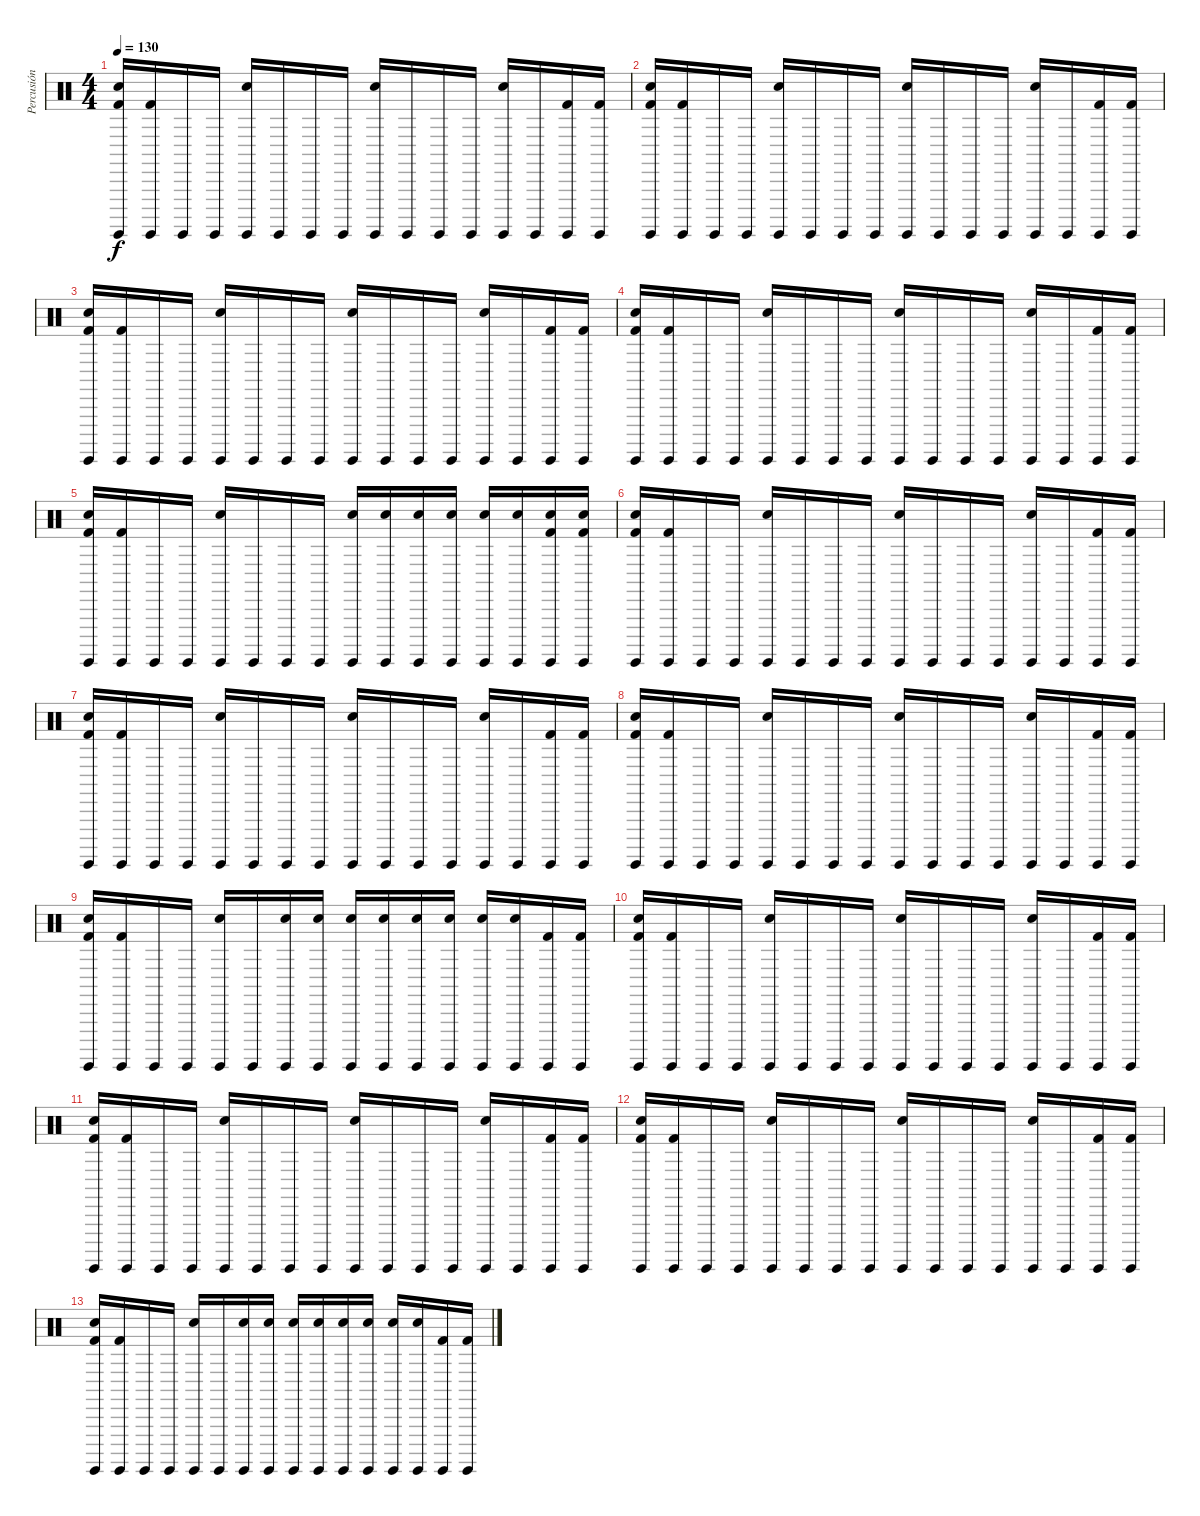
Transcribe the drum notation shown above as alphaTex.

\track ("Percusión" "Percusión") {instrument percussion}
\staff {score}
\articulation defaults
\ts (4 4)
\tempo 130
\clef neutral
\ks c
("Kick (hit) 2" "Electric Snare (hit)" "Surdo (hit)").16{dy f} ("Kick (hit) 2" "Surdo (hit)").16 "Surdo (hit)".16 "Surdo (hit)".16 ("Electric Snare (hit)" "Surdo (hit)").16 "Surdo (hit)".16 "Surdo (hit)".16 "Surdo (hit)".16 ("Electric Snare (hit)" "Surdo (hit)").16 "Surdo (hit)".16 "Surdo (hit)".16 "Surdo (hit)".16 ("Electric Snare (hit)" "Surdo (hit)").16 "Surdo (hit)".16 ("Kick (hit) 2" "Surdo (hit)").16 ("Kick (hit) 2" "Surdo (hit)").16 |
("Kick (hit) 2" "Electric Snare (hit)" "Surdo (hit)").16 ("Kick (hit) 2" "Surdo (hit)").16 "Surdo (hit)".16 "Surdo (hit)".16 ("Electric Snare (hit)" "Surdo (hit)").16 "Surdo (hit)".16 "Surdo (hit)".16 "Surdo (hit)".16 ("Electric Snare (hit)" "Surdo (hit)").16 "Surdo (hit)".16 "Surdo (hit)".16 "Surdo (hit)".16 ("Electric Snare (hit)" "Surdo (hit)").16 "Surdo (hit)".16 ("Kick (hit) 2" "Surdo (hit)").16 ("Kick (hit) 2" "Surdo (hit)").16 |
("Kick (hit) 2" "Electric Snare (hit)" "Surdo (hit)").16 ("Kick (hit) 2" "Surdo (hit)").16 "Surdo (hit)".16 "Surdo (hit)".16 ("Electric Snare (hit)" "Surdo (hit)").16 "Surdo (hit)".16 "Surdo (hit)".16 "Surdo (hit)".16 ("Electric Snare (hit)" "Surdo (hit)").16 "Surdo (hit)".16 "Surdo (hit)".16 "Surdo (hit)".16 ("Electric Snare (hit)" "Surdo (hit)").16 "Surdo (hit)".16 ("Kick (hit) 2" "Surdo (hit)").16 ("Kick (hit) 2" "Surdo (hit)").16 |
("Kick (hit) 2" "Electric Snare (hit)" "Surdo (hit)").16 ("Kick (hit) 2" "Surdo (hit)").16 "Surdo (hit)".16 "Surdo (hit)".16 ("Electric Snare (hit)" "Surdo (hit)").16 "Surdo (hit)".16 "Surdo (hit)".16 "Surdo (hit)".16 ("Electric Snare (hit)" "Surdo (hit)").16 "Surdo (hit)".16 "Surdo (hit)".16 "Surdo (hit)".16 ("Electric Snare (hit)" "Surdo (hit)").16 "Surdo (hit)".16 ("Kick (hit) 2" "Surdo (hit)").16 ("Kick (hit) 2" "Surdo (hit)").16 |
("Kick (hit) 2" "Electric Snare (hit)" "Surdo (hit)").16 ("Kick (hit) 2" "Surdo (hit)").16 "Surdo (hit)".16 "Surdo (hit)".16 ("Electric Snare (hit)" "Surdo (hit)").16 "Surdo (hit)".16 "Surdo (hit)".16 "Surdo (hit)".16 ("Electric Snare (hit)" "Surdo (hit)").16 ("Electric Snare (hit)" "Surdo (hit)").16 ("Electric Snare (hit)" "Surdo (hit)").16 ("Electric Snare (hit)" "Surdo (hit)").16 ("Electric Snare (hit)" "Surdo (hit)").16 ("Electric Snare (hit)" "Surdo (hit)").16 ("Kick (hit) 2" "Electric Snare (hit)" "Surdo (hit)").16 ("Kick (hit) 2" "Electric Snare (hit)" "Surdo (hit)").16 |
("Kick (hit) 2" "Electric Snare (hit)" "Surdo (hit)").16 ("Kick (hit) 2" "Surdo (hit)").16 "Surdo (hit)".16 "Surdo (hit)".16 ("Electric Snare (hit)" "Surdo (hit)").16 "Surdo (hit)".16 "Surdo (hit)".16 "Surdo (hit)".16 ("Electric Snare (hit)" "Surdo (hit)").16 "Surdo (hit)".16 "Surdo (hit)".16 "Surdo (hit)".16 ("Electric Snare (hit)" "Surdo (hit)").16 "Surdo (hit)".16 ("Kick (hit) 2" "Surdo (hit)").16 ("Kick (hit) 2" "Surdo (hit)").16 |
("Kick (hit) 2" "Electric Snare (hit)" "Surdo (hit)").16 ("Kick (hit) 2" "Surdo (hit)").16 "Surdo (hit)".16 "Surdo (hit)".16 ("Electric Snare (hit)" "Surdo (hit)").16 "Surdo (hit)".16 "Surdo (hit)".16 "Surdo (hit)".16 ("Electric Snare (hit)" "Surdo (hit)").16 "Surdo (hit)".16 "Surdo (hit)".16 "Surdo (hit)".16 ("Electric Snare (hit)" "Surdo (hit)").16 "Surdo (hit)".16 ("Kick (hit) 2" "Surdo (hit)").16 ("Kick (hit) 2" "Surdo (hit)").16 |
("Kick (hit) 2" "Electric Snare (hit)" "Surdo (hit)").16 ("Kick (hit) 2" "Surdo (hit)").16 "Surdo (hit)".16 "Surdo (hit)".16 ("Electric Snare (hit)" "Surdo (hit)").16 "Surdo (hit)".16 "Surdo (hit)".16 "Surdo (hit)".16 ("Electric Snare (hit)" "Surdo (hit)").16 "Surdo (hit)".16 "Surdo (hit)".16 "Surdo (hit)".16 ("Electric Snare (hit)" "Surdo (hit)").16 "Surdo (hit)".16 ("Kick (hit) 2" "Surdo (hit)").16 ("Kick (hit) 2" "Surdo (hit)").16 |
("Kick (hit) 2" "Electric Snare (hit)" "Surdo (hit)").16 ("Kick (hit) 2" "Surdo (hit)").16 "Surdo (hit)".16 "Surdo (hit)".16 ("Electric Snare (hit)" "Surdo (hit)").16 "Surdo (hit)".16 ("Electric Snare (hit)" "Surdo (hit)").16 ("Electric Snare (hit)" "Surdo (hit)").16 ("Electric Snare (hit)" "Surdo (hit)").16 ("Electric Snare (hit)" "Surdo (hit)").16 ("Electric Snare (hit)" "Surdo (hit)").16 ("Electric Snare (hit)" "Surdo (hit)").16 ("Electric Snare (hit)" "Surdo (hit)").16 ("Electric Snare (hit)" "Surdo (hit)").16 ("Kick (hit) 2" "Surdo (hit)").16 ("Kick (hit) 2" "Surdo (hit)").16 |
("Kick (hit) 2" "Electric Snare (hit)" "Surdo (hit)").16 ("Kick (hit) 2" "Surdo (hit)").16 "Surdo (hit)".16 "Surdo (hit)".16 ("Electric Snare (hit)" "Surdo (hit)").16 "Surdo (hit)".16 "Surdo (hit)".16 "Surdo (hit)".16 ("Electric Snare (hit)" "Surdo (hit)").16 "Surdo (hit)".16 "Surdo (hit)".16 "Surdo (hit)".16 ("Electric Snare (hit)" "Surdo (hit)").16 "Surdo (hit)".16 ("Kick (hit) 2" "Surdo (hit)").16 ("Kick (hit) 2" "Surdo (hit)").16 |
("Kick (hit) 2" "Electric Snare (hit)" "Surdo (hit)").16 ("Kick (hit) 2" "Surdo (hit)").16 "Surdo (hit)".16 "Surdo (hit)".16 ("Electric Snare (hit)" "Surdo (hit)").16 "Surdo (hit)".16 "Surdo (hit)".16 "Surdo (hit)".16 ("Electric Snare (hit)" "Surdo (hit)").16 "Surdo (hit)".16 "Surdo (hit)".16 "Surdo (hit)".16 ("Electric Snare (hit)" "Surdo (hit)").16 "Surdo (hit)".16 ("Kick (hit) 2" "Surdo (hit)").16 ("Kick (hit) 2" "Surdo (hit)").16 |
("Kick (hit) 2" "Electric Snare (hit)" "Surdo (hit)").16 ("Kick (hit) 2" "Surdo (hit)").16 "Surdo (hit)".16 "Surdo (hit)".16 ("Electric Snare (hit)" "Surdo (hit)").16 "Surdo (hit)".16 "Surdo (hit)".16 "Surdo (hit)".16 ("Electric Snare (hit)" "Surdo (hit)").16 "Surdo (hit)".16 "Surdo (hit)".16 "Surdo (hit)".16 ("Electric Snare (hit)" "Surdo (hit)").16 "Surdo (hit)".16 ("Kick (hit) 2" "Surdo (hit)").16 ("Kick (hit) 2" "Surdo (hit)").16 |
("Kick (hit) 2" "Electric Snare (hit)" "Surdo (hit)").16 ("Kick (hit) 2" "Surdo (hit)").16 "Surdo (hit)".16 "Surdo (hit)".16 ("Electric Snare (hit)" "Surdo (hit)").16 "Surdo (hit)".16 ("Electric Snare (hit)" "Surdo (hit)").16 ("Electric Snare (hit)" "Surdo (hit)").16 ("Electric Snare (hit)" "Surdo (hit)").16 ("Electric Snare (hit)" "Surdo (hit)").16 ("Electric Snare (hit)" "Surdo (hit)").16 ("Electric Snare (hit)" "Surdo (hit)").16 ("Electric Snare (hit)" "Surdo (hit)").16 ("Electric Snare (hit)" "Surdo (hit)").16 ("Kick (hit) 2" "Surdo (hit)").16 ("Kick (hit) 2" "Surdo (hit)").16
